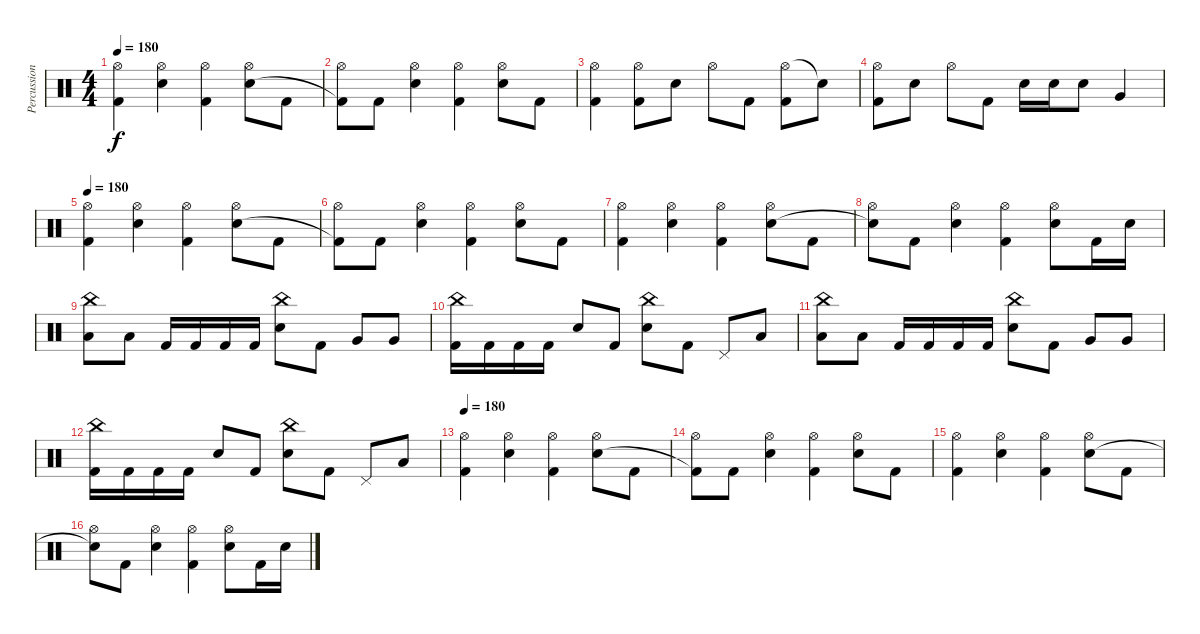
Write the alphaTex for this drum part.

\track ("Percussions" "Percussion") {instrument percussion}
\staff {score}
\articulation defaults
\ts (4 4)
\tempo 180
\clef neutral
\ks c
("Hi-Hat (open)" "Kick (hit) 2").4{dy f} ("Hi-Hat (open)" "Electric Snare (hit)").4 ("Hi-Hat (open)" "Kick (hit) 2").4 ("Hi-Hat (open)" "Electric Snare (hit)").8 "Kick (hit) 2".8 |
("Hi-Hat (open)" "Kick (hit) 2"{t}).8 "Kick (hit) 2".8 ("Hi-Hat (open)" "Electric Snare (hit)").4 ("Hi-Hat (open)" "Kick (hit) 2").4 ("Hi-Hat (open)" "Electric Snare (hit)").8 "Kick (hit) 2".8 |
("Hi-Hat (open)" "Kick (hit) 2").4 ("Hi-Hat (open)" "Kick (hit) 2").8 "Electric Snare (hit)".8 "Hi-Hat (open)".8 "Kick (hit) 2".8 ("Hi-Hat (open)" "Kick (hit) 2").8 "Snare (hit)"{t}.8 |
("Hi-Hat (open)" "Kick (hit) 2").8 "Electric Snare (hit)".8 "Hi-Hat (open)".8 "Kick (hit) 2".8 "Electric Snare (hit)".16 "Electric Snare (hit)".16 "Electric Snare (hit)".8 "Very Low Tom (hit)".4 |
\tempo 180
("Hi-Hat (open)" "Kick (hit) 2").4 ("Hi-Hat (open)" "Electric Snare (hit)").4 ("Hi-Hat (open)" "Kick (hit) 2").4 ("Hi-Hat (open)" "Electric Snare (hit)").8 "Kick (hit) 2".8 |
("Hi-Hat (open)" "Kick (hit) 2"{t}).8 "Kick (hit) 2".8 ("Hi-Hat (open)" "Electric Snare (hit)").4 ("Hi-Hat (open)" "Kick (hit) 2").4 ("Hi-Hat (open)" "Electric Snare (hit)").8 "Kick (hit) 2".8 |
("Hi-Hat (open)" "Kick (hit) 2").4 ("Hi-Hat (open)" "Electric Snare (hit)").4 ("Hi-Hat (open)" "Kick (hit) 2").4 ("Hi-Hat (open)" "Electric Snare (hit)").8 "Kick (hit) 2".8 |
("Hi-Hat (open)" "Snare (hit)"{t}).8 "Kick (hit) 2".8 ("Hi-Hat (open)" "Electric Snare (hit)").4 ("Hi-Hat (open)" "Kick (hit) 2").4 ("Hi-Hat (open)" "Electric Snare (hit)").8 "Kick (hit) 2".16 "Electric Snare (hit)".16 |
("China (hit)" "Low Tom (hit)").8 "Low Tom (hit)".8 "Kick (hit) 2".16 "Kick (hit) 2".16 "Kick (hit) 2".16 "Kick (hit) 2".16 ("China (hit)" "Electric Snare (hit)").8 "Kick (hit) 2".8 "Very Low Tom (hit)".8 "Very Low Tom (hit)".8 |
("China (hit)" "Kick (hit) 2").16 "Kick (hit) 2".16 "Kick (hit) 2".16 "Kick (hit) 2".16 "Electric Snare (hit)".8 "Kick (hit) 2".8 ("China (hit)" "Electric Snare (hit)").8 "Kick (hit) 2".8 "Pedal Hi-Hat (hit)".8 "Low Floor Tom (hit)".8 |
("China (hit)" "Low Tom (hit)").8 "Low Tom (hit)".8 "Kick (hit) 2".16 "Kick (hit) 2".16 "Kick (hit) 2".16 "Kick (hit) 2".16 ("China (hit)" "Electric Snare (hit)").8 "Kick (hit) 2".8 "Very Low Tom (hit)".8 "Very Low Tom (hit)".8 |
("China (hit)" "Kick (hit) 2").16 "Kick (hit) 2".16 "Kick (hit) 2".16 "Kick (hit) 2".16 "Electric Snare (hit)".8 "Kick (hit) 2".8 ("China (hit)" "Electric Snare (hit)").8 "Kick (hit) 2".8 "Pedal Hi-Hat (hit)".8 "Low Floor Tom (hit)".8 |
\tempo 180
("Hi-Hat (open)" "Kick (hit) 2").4 ("Hi-Hat (open)" "Electric Snare (hit)").4 ("Hi-Hat (open)" "Kick (hit) 2").4 ("Hi-Hat (open)" "Electric Snare (hit)").8 "Kick (hit) 2".8 |
("Hi-Hat (open)" "Kick (hit) 2"{t}).8 "Kick (hit) 2".8 ("Hi-Hat (open)" "Electric Snare (hit)").4 ("Hi-Hat (open)" "Kick (hit) 2").4 ("Hi-Hat (open)" "Electric Snare (hit)").8 "Kick (hit) 2".8 |
("Hi-Hat (open)" "Kick (hit) 2").4 ("Hi-Hat (open)" "Electric Snare (hit)").4 ("Hi-Hat (open)" "Kick (hit) 2").4 ("Hi-Hat (open)" "Electric Snare (hit)").8 "Kick (hit) 2".8 |
("Hi-Hat (open)" "Snare (hit)"{t}).8 "Kick (hit) 2".8 ("Hi-Hat (open)" "Electric Snare (hit)").4 ("Hi-Hat (open)" "Kick (hit) 2").4 ("Hi-Hat (open)" "Electric Snare (hit)").8 "Kick (hit) 2".16 "Electric Snare (hit)".16
